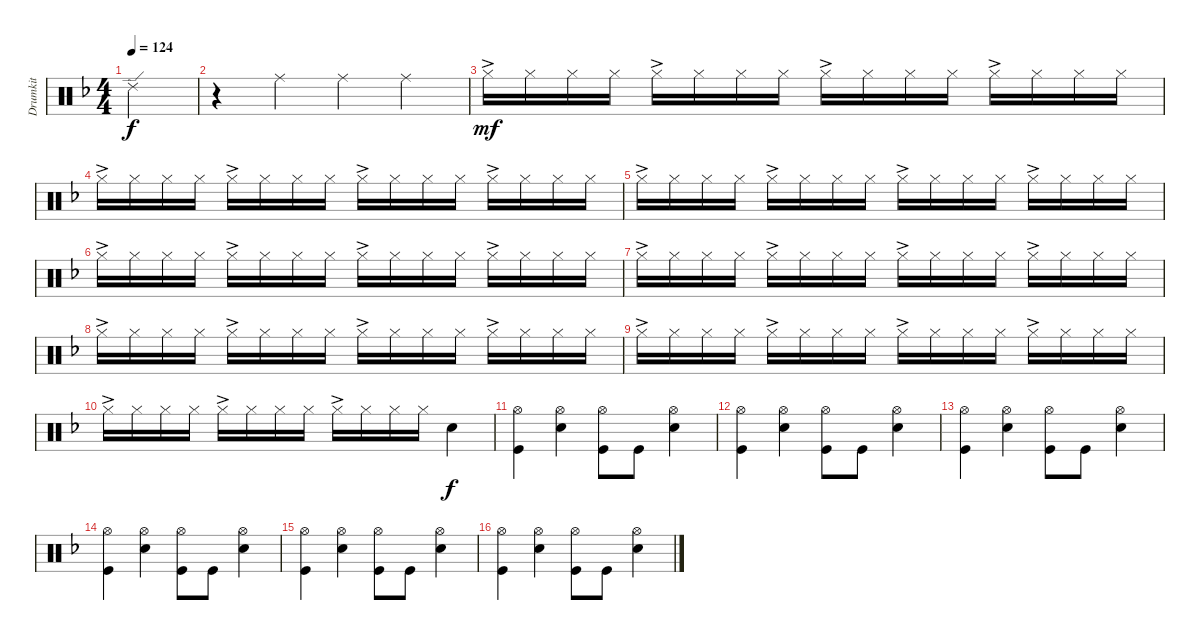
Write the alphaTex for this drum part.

\track ("Drumkit" "Drumkit") {instrument percussion}
\staff {score}
\articulation defaults
\ts (4 4)
\tempo 124
\clef neutral
\ks dminor "Ride (edge) 2".4{dy f}
|
r.4 "Ride (middle)".4 "Ride (middle)".4 "Ride (middle)".4 |
"Hi-Hat (closed)"{ac}.16{dy mf} "Hi-Hat (closed)".16 "Hi-Hat (closed)".16 "Hi-Hat (closed)".16 "Hi-Hat (closed)"{ac}.16 "Hi-Hat (closed)".16 "Hi-Hat (closed)".16 "Hi-Hat (closed)".16 "Hi-Hat (closed)"{ac}.16 "Hi-Hat (closed)".16 "Hi-Hat (closed)".16 "Hi-Hat (closed)".16 "Hi-Hat (closed)"{ac}.16 "Hi-Hat (closed)".16 "Hi-Hat (closed)".16 "Hi-Hat (closed)".16 |
"Hi-Hat (closed)"{ac}.16 "Hi-Hat (closed)".16 "Hi-Hat (closed)".16 "Hi-Hat (closed)".16 "Hi-Hat (closed)"{ac}.16 "Hi-Hat (closed)".16 "Hi-Hat (closed)".16 "Hi-Hat (closed)".16 "Hi-Hat (closed)"{ac}.16 "Hi-Hat (closed)".16 "Hi-Hat (closed)".16 "Hi-Hat (closed)".16 "Hi-Hat (closed)"{ac}.16 "Hi-Hat (closed)".16 "Hi-Hat (closed)".16 "Hi-Hat (closed)".16 |
"Hi-Hat (closed)"{ac}.16 "Hi-Hat (closed)".16 "Hi-Hat (closed)".16 "Hi-Hat (closed)".16 "Hi-Hat (closed)"{ac}.16 "Hi-Hat (closed)".16 "Hi-Hat (closed)".16 "Hi-Hat (closed)".16 "Hi-Hat (closed)"{ac}.16 "Hi-Hat (closed)".16 "Hi-Hat (closed)".16 "Hi-Hat (closed)".16 "Hi-Hat (closed)"{ac}.16 "Hi-Hat (closed)".16 "Hi-Hat (closed)".16 "Hi-Hat (closed)".16 |
"Hi-Hat (closed)"{ac}.16 "Hi-Hat (closed)".16 "Hi-Hat (closed)".16 "Hi-Hat (closed)".16 "Hi-Hat (closed)"{ac}.16 "Hi-Hat (closed)".16 "Hi-Hat (closed)".16 "Hi-Hat (closed)".16 "Hi-Hat (closed)"{ac}.16 "Hi-Hat (closed)".16 "Hi-Hat (closed)".16 "Hi-Hat (closed)".16 "Hi-Hat (closed)"{ac}.16 "Hi-Hat (closed)".16 "Hi-Hat (closed)".16 "Hi-Hat (closed)".16 |
"Hi-Hat (closed)"{ac}.16 "Hi-Hat (closed)".16 "Hi-Hat (closed)".16 "Hi-Hat (closed)".16 "Hi-Hat (closed)"{ac}.16 "Hi-Hat (closed)".16 "Hi-Hat (closed)".16 "Hi-Hat (closed)".16 "Hi-Hat (closed)"{ac}.16 "Hi-Hat (closed)".16 "Hi-Hat (closed)".16 "Hi-Hat (closed)".16 "Hi-Hat (closed)"{ac}.16 "Hi-Hat (closed)".16 "Hi-Hat (closed)".16 "Hi-Hat (closed)".16 |
"Hi-Hat (closed)"{ac}.16 "Hi-Hat (closed)".16 "Hi-Hat (closed)".16 "Hi-Hat (closed)".16 "Hi-Hat (closed)"{ac}.16 "Hi-Hat (closed)".16 "Hi-Hat (closed)".16 "Hi-Hat (closed)".16 "Hi-Hat (closed)"{ac}.16 "Hi-Hat (closed)".16 "Hi-Hat (closed)".16 "Hi-Hat (closed)".16 "Hi-Hat (closed)"{ac}.16 "Hi-Hat (closed)".16 "Hi-Hat (closed)".16 "Hi-Hat (closed)".16 |
"Hi-Hat (closed)"{ac}.16 "Hi-Hat (closed)".16 "Hi-Hat (closed)".16 "Hi-Hat (closed)".16 "Hi-Hat (closed)"{ac}.16 "Hi-Hat (closed)".16 "Hi-Hat (closed)".16 "Hi-Hat (closed)".16 "Hi-Hat (closed)"{ac}.16 "Hi-Hat (closed)".16 "Hi-Hat (closed)".16 "Hi-Hat (closed)".16 "Hi-Hat (closed)"{ac}.16 "Hi-Hat (closed)".16 "Hi-Hat (closed)".16 "Hi-Hat (closed)".16 |
"Hi-Hat (closed)"{ac}.16 "Hi-Hat (closed)".16 "Hi-Hat (closed)".16 "Hi-Hat (closed)".16 "Hi-Hat (closed)"{ac}.16 "Hi-Hat (closed)".16 "Hi-Hat (closed)".16 "Hi-Hat (closed)".16 "Hi-Hat (closed)"{ac}.16 "Hi-Hat (closed)".16 "Hi-Hat (closed)".16 "Hi-Hat (closed)".16 "Snare (hit) 2".4{dy f} |
("Hi-Hat (open)" "Kick (hit)").4 ("Hi-Hat (open)" "Snare (hit) 2").4 ("Hi-Hat (open)" "Kick (hit)").8 "Kick (hit)".8 ("Snare (hit) 2" "Hi-Hat (open)").4 |
("Hi-Hat (open)" "Kick (hit)").4 ("Hi-Hat (open)" "Snare (hit) 2").4 ("Hi-Hat (open)" "Kick (hit)").8 "Kick (hit)".8 ("Snare (hit) 2" "Hi-Hat (open)").4 |
("Hi-Hat (open)" "Kick (hit)").4 ("Hi-Hat (open)" "Snare (hit) 2").4 ("Hi-Hat (open)" "Kick (hit)").8 "Kick (hit)".8 ("Snare (hit) 2" "Hi-Hat (open)").4 |
("Hi-Hat (open)" "Kick (hit)").4 ("Hi-Hat (open)" "Snare (hit) 2").4 ("Hi-Hat (open)" "Kick (hit)").8 "Kick (hit)".8 ("Snare (hit) 2" "Hi-Hat (open)").4 |
("Hi-Hat (open)" "Kick (hit)").4 ("Hi-Hat (open)" "Snare (hit) 2").4 ("Hi-Hat (open)" "Kick (hit)").8 "Kick (hit)".8 ("Snare (hit) 2" "Hi-Hat (open)").4 |
("Hi-Hat (open)" "Kick (hit)").4 ("Hi-Hat (open)" "Snare (hit) 2").4 ("Hi-Hat (open)" "Kick (hit)").8 "Kick (hit)".8 ("Snare (hit) 2" "Hi-Hat (open)").4
